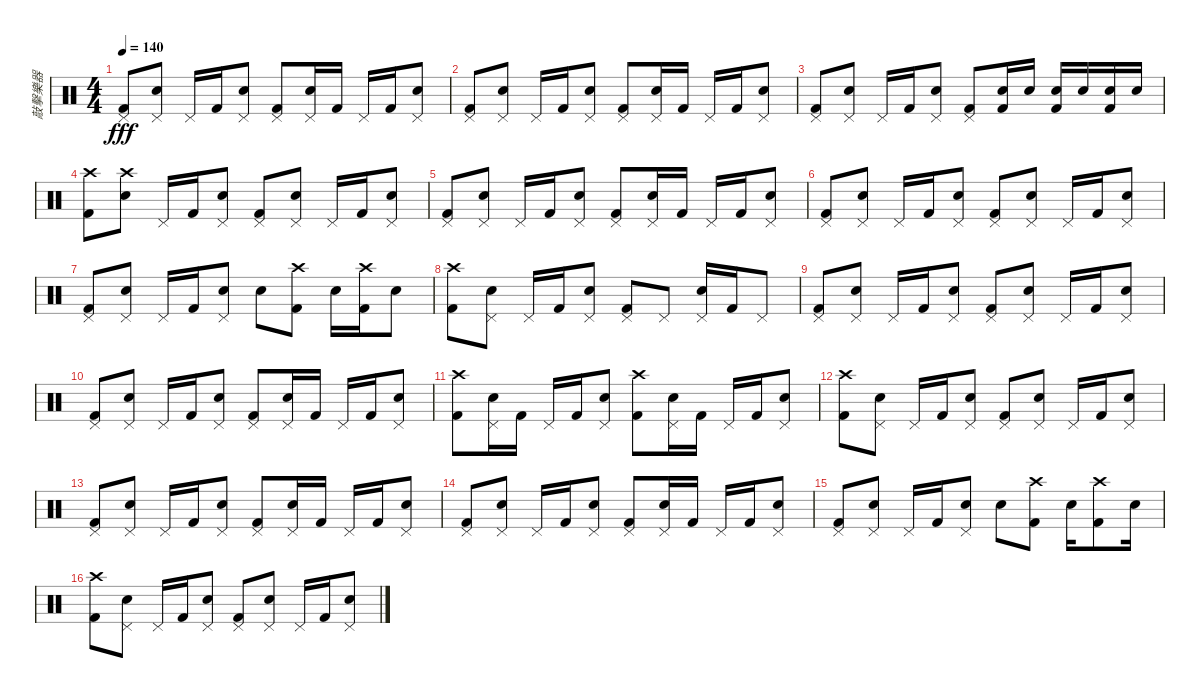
\track ("敲擊樂器" "敲擊樂器") {instrument percussion}
\staff {score}
\articulation defaults
\ts (4 4)
\tempo 140
\clef neutral
\ks c
("Pedal Hi-Hat (hit)" "Kick (hit) 2").8{dy fff} ("Pedal Hi-Hat (hit)" "Snare (hit) 2").8 "Pedal Hi-Hat (hit)".16 "Kick (hit) 2".16 ("Pedal Hi-Hat (hit)" "Snare (hit) 2").8 ("Pedal Hi-Hat (hit)" "Kick (hit) 2").8 ("Pedal Hi-Hat (hit)" "Snare (hit) 2").16 "Kick (hit) 2".16 "Pedal Hi-Hat (hit)".16 "Kick (hit) 2".16 ("Pedal Hi-Hat (hit)" "Snare (hit) 2").8 |
("Pedal Hi-Hat (hit)" "Kick (hit) 2").8 ("Pedal Hi-Hat (hit)" "Snare (hit) 2").8 "Pedal Hi-Hat (hit)".16 "Kick (hit) 2".16 ("Pedal Hi-Hat (hit)" "Snare (hit) 2").8 ("Pedal Hi-Hat (hit)" "Kick (hit) 2").8 ("Pedal Hi-Hat (hit)" "Snare (hit) 2").16 "Kick (hit) 2".16 "Pedal Hi-Hat (hit)".16 "Kick (hit) 2".16 ("Pedal Hi-Hat (hit)" "Snare (hit) 2").8 |
("Pedal Hi-Hat (hit)" "Kick (hit) 2").8 ("Pedal Hi-Hat (hit)" "Snare (hit) 2").8 "Pedal Hi-Hat (hit)".16 "Kick (hit) 2".16 ("Pedal Hi-Hat (hit)" "Snare (hit) 2").8 ("Pedal Hi-Hat (hit)" "Kick (hit) 2").8 ("Snare (hit) 2" "Kick (hit) 2").16 "Snare (hit) 2".16 ("Snare (hit) 2" "Kick (hit) 2").16 "Snare (hit) 2".16 ("Snare (hit) 2" "Kick (hit) 2").16 "Snare (hit) 2".16 |
("Crash high (hit)" "Kick (hit) 2").8 ("Crash high (hit)" "Snare (hit) 2").8 "Pedal Hi-Hat (hit)".16 "Kick (hit) 2".16 ("Pedal Hi-Hat (hit)" "Snare (hit) 2").8 ("Pedal Hi-Hat (hit)" "Kick (hit) 2").8 ("Pedal Hi-Hat (hit)" "Snare (hit) 2").8 "Pedal Hi-Hat (hit)".16 "Kick (hit) 2".16 ("Pedal Hi-Hat (hit)" "Snare (hit) 2").8 |
("Pedal Hi-Hat (hit)" "Kick (hit) 2").8 ("Pedal Hi-Hat (hit)" "Snare (hit) 2").8 "Pedal Hi-Hat (hit)".16 "Kick (hit) 2".16 ("Pedal Hi-Hat (hit)" "Snare (hit) 2").8 ("Pedal Hi-Hat (hit)" "Kick (hit) 2").8 ("Pedal Hi-Hat (hit)" "Snare (hit) 2").16 "Kick (hit) 2".16 "Pedal Hi-Hat (hit)".16 "Kick (hit) 2".16 ("Pedal Hi-Hat (hit)" "Snare (hit) 2").8 |
("Pedal Hi-Hat (hit)" "Kick (hit) 2").8 ("Pedal Hi-Hat (hit)" "Snare (hit) 2").8 "Pedal Hi-Hat (hit)".16 "Kick (hit) 2".16 ("Pedal Hi-Hat (hit)" "Snare (hit) 2").8 ("Pedal Hi-Hat (hit)" "Kick (hit) 2").8 ("Pedal Hi-Hat (hit)" "Snare (hit) 2").8 "Pedal Hi-Hat (hit)".16 "Kick (hit) 2".16 ("Pedal Hi-Hat (hit)" "Snare (hit) 2").8 |
("Pedal Hi-Hat (hit)" "Kick (hit) 2").8 ("Pedal Hi-Hat (hit)" "Snare (hit) 2").8 "Pedal Hi-Hat (hit)".16 "Kick (hit) 2".16 ("Pedal Hi-Hat (hit)" "Snare (hit) 2").8 "Snare (hit) 2".8 ("Crash high (hit)" "Kick (hit) 2").8 "Snare (hit) 2".16 ("Crash high (hit)" "Kick (hit) 2").16 "Snare (hit) 2".8 |
("Crash high (hit)" "Kick (hit) 2").8 ("Pedal Hi-Hat (hit)" "Snare (hit) 2").8 "Pedal Hi-Hat (hit)".16 "Kick (hit) 2".16 ("Pedal Hi-Hat (hit)" "Snare (hit) 2").8 ("Pedal Hi-Hat (hit)" "Kick (hit) 2").8 "Pedal Hi-Hat (hit)".8 ("Pedal Hi-Hat (hit)" "Snare (hit) 2").16 "Kick (hit) 2".16 "Pedal Hi-Hat (hit)".8 |
("Pedal Hi-Hat (hit)" "Kick (hit) 2").8 ("Pedal Hi-Hat (hit)" "Snare (hit) 2").8 "Pedal Hi-Hat (hit)".16 "Kick (hit) 2".16 ("Pedal Hi-Hat (hit)" "Snare (hit) 2").8 ("Pedal Hi-Hat (hit)" "Kick (hit) 2").8 ("Pedal Hi-Hat (hit)" "Snare (hit) 2").8 "Pedal Hi-Hat (hit)".16 "Kick (hit) 2".16 ("Pedal Hi-Hat (hit)" "Snare (hit) 2").8 |
("Pedal Hi-Hat (hit)" "Kick (hit) 2").8 ("Pedal Hi-Hat (hit)" "Snare (hit) 2").8 "Pedal Hi-Hat (hit)".16 "Kick (hit) 2".16 ("Pedal Hi-Hat (hit)" "Snare (hit) 2").8 ("Pedal Hi-Hat (hit)" "Kick (hit) 2").8 ("Pedal Hi-Hat (hit)" "Snare (hit) 2").16 "Kick (hit) 2".16 "Pedal Hi-Hat (hit)".16 "Kick (hit) 2".16 ("Pedal Hi-Hat (hit)" "Snare (hit) 2").8 |
("Crash high (hit)" "Kick (hit) 2").8 ("Pedal Hi-Hat (hit)" "Snare (hit) 2").16 "Kick (hit) 2".16 "Pedal Hi-Hat (hit)".16 "Kick (hit) 2".16 ("Pedal Hi-Hat (hit)" "Snare (hit) 2").8 ("Crash high (hit)" "Kick (hit) 2").8 ("Pedal Hi-Hat (hit)" "Snare (hit) 2").16 "Kick (hit) 2".16 "Pedal Hi-Hat (hit)".16 "Kick (hit) 2".16 ("Pedal Hi-Hat (hit)" "Snare (hit) 2").8 |
("Crash high (hit)" "Kick (hit) 2").8 ("Pedal Hi-Hat (hit)" "Snare (hit) 2").8 "Pedal Hi-Hat (hit)".16 "Kick (hit) 2".16 ("Pedal Hi-Hat (hit)" "Snare (hit) 2").8 ("Pedal Hi-Hat (hit)" "Kick (hit) 2").8 ("Pedal Hi-Hat (hit)" "Snare (hit) 2").8 "Pedal Hi-Hat (hit)".16 "Kick (hit) 2".16 ("Pedal Hi-Hat (hit)" "Snare (hit) 2").8 |
("Pedal Hi-Hat (hit)" "Kick (hit) 2").8 ("Pedal Hi-Hat (hit)" "Snare (hit) 2").8 "Pedal Hi-Hat (hit)".16 "Kick (hit) 2".16 ("Pedal Hi-Hat (hit)" "Snare (hit) 2").8 ("Pedal Hi-Hat (hit)" "Kick (hit) 2").8 ("Pedal Hi-Hat (hit)" "Snare (hit) 2").16 "Kick (hit) 2".16 "Pedal Hi-Hat (hit)".16 "Kick (hit) 2".16 ("Pedal Hi-Hat (hit)" "Snare (hit) 2").8 |
("Pedal Hi-Hat (hit)" "Kick (hit) 2").8 ("Pedal Hi-Hat (hit)" "Snare (hit) 2").8 "Pedal Hi-Hat (hit)".16 "Kick (hit) 2".16 ("Pedal Hi-Hat (hit)" "Snare (hit) 2").8 ("Pedal Hi-Hat (hit)" "Kick (hit) 2").8 ("Pedal Hi-Hat (hit)" "Snare (hit) 2").16 "Kick (hit) 2".16 "Pedal Hi-Hat (hit)".16 "Kick (hit) 2".16 ("Pedal Hi-Hat (hit)" "Snare (hit) 2").8 |
("Pedal Hi-Hat (hit)" "Kick (hit) 2").8 ("Pedal Hi-Hat (hit)" "Snare (hit) 2").8 "Pedal Hi-Hat (hit)".16 "Kick (hit) 2".16 ("Pedal Hi-Hat (hit)" "Snare (hit) 2").8 "Snare (hit) 2".8 ("Crash high (hit)" "Kick (hit) 2").8 "Snare (hit) 2".16 ("Crash high (hit)" "Kick (hit) 2").8 "Snare (hit) 2".16 |
("Crash high (hit)" "Kick (hit) 2").8 ("Pedal Hi-Hat (hit)" "Snare (hit) 2").8 "Pedal Hi-Hat (hit)".16 "Kick (hit) 2".16 ("Pedal Hi-Hat (hit)" "Snare (hit) 2").8 ("Pedal Hi-Hat (hit)" "Kick (hit) 2").8 ("Pedal Hi-Hat (hit)" "Snare (hit) 2").8 "Pedal Hi-Hat (hit)".16 "Kick (hit) 2".16 ("Pedal Hi-Hat (hit)" "Snare (hit) 2").8
